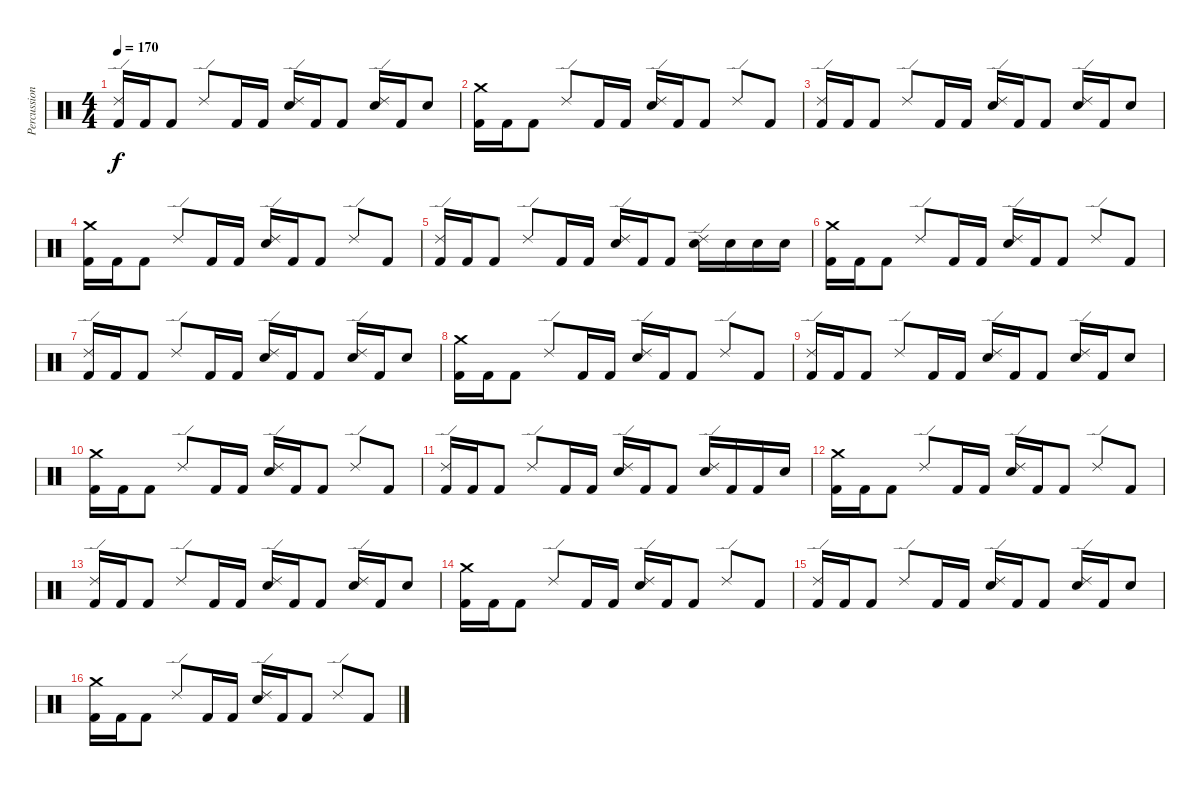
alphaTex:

\track ("Percussion" "Percussion") {instrument percussion}
\staff {score}
\articulation defaults
\ts (4 4)
\tempo 170
\clef neutral
\ks c
("Ride (edge) 2" "Kick (hit) 2").16{dy f} "Kick (hit) 2".16 "Kick (hit) 2".8 "Ride (edge) 2".8 "Kick (hit) 2".16 "Kick (hit) 2".16 ("Ride (edge) 2" "Electric Snare (hit)").16 "Kick (hit) 2".16 "Kick (hit) 2".8 ("Ride (edge) 2" "Electric Snare (hit)").16 "Kick (hit) 2".16 "Electric Snare (hit)".8 |
("Crash medium (hit)" "Kick (hit) 2").16 "Kick (hit) 2".16 "Kick (hit) 2".8 "Ride (edge) 2".8 "Kick (hit) 2".16 "Kick (hit) 2".16 ("Ride (edge) 2" "Electric Snare (hit)").16 "Kick (hit) 2".16 "Kick (hit) 2".8 "Ride (edge) 2".8 "Kick (hit) 2".8 |
("Ride (edge) 2" "Kick (hit) 2").16 "Kick (hit) 2".16 "Kick (hit) 2".8 "Ride (edge) 2".8 "Kick (hit) 2".16 "Kick (hit) 2".16 ("Ride (edge) 2" "Electric Snare (hit)").16 "Kick (hit) 2".16 "Kick (hit) 2".8 ("Ride (edge) 2" "Electric Snare (hit)").16 "Kick (hit) 2".16 "Electric Snare (hit)".8 |
("Crash medium (hit)" "Kick (hit) 2").16 "Kick (hit) 2".16 "Kick (hit) 2".8 "Ride (edge) 2".8 "Kick (hit) 2".16 "Kick (hit) 2".16 ("Ride (edge) 2" "Electric Snare (hit)").16 "Kick (hit) 2".16 "Kick (hit) 2".8 "Ride (edge) 2".8 "Kick (hit) 2".8 |
("Ride (edge) 2" "Kick (hit) 2").16 "Kick (hit) 2".16 "Kick (hit) 2".8 "Ride (edge) 2".8 "Kick (hit) 2".16 "Kick (hit) 2".16 ("Ride (edge) 2" "Electric Snare (hit)").16 "Kick (hit) 2".16 "Kick (hit) 2".8 ("Electric Snare (hit)" "Ride (edge) 2").16 "Electric Snare (hit)".16 "Electric Snare (hit)".16 "Electric Snare (hit)".16 |
("Crash medium (hit)" "Kick (hit) 2").16 "Kick (hit) 2".16 "Kick (hit) 2".8 "Ride (edge) 2".8 "Kick (hit) 2".16 "Kick (hit) 2".16 ("Ride (edge) 2" "Electric Snare (hit)").16 "Kick (hit) 2".16 "Kick (hit) 2".8 "Ride (edge) 2".8 "Kick (hit) 2".8 |
("Ride (edge) 2" "Kick (hit) 2").16 "Kick (hit) 2".16 "Kick (hit) 2".8 "Ride (edge) 2".8 "Kick (hit) 2".16 "Kick (hit) 2".16 ("Ride (edge) 2" "Electric Snare (hit)").16 "Kick (hit) 2".16 "Kick (hit) 2".8 ("Ride (edge) 2" "Electric Snare (hit)").16 "Kick (hit) 2".16 "Electric Snare (hit)".8 |
("Crash medium (hit)" "Kick (hit) 2").16 "Kick (hit) 2".16 "Kick (hit) 2".8 "Ride (edge) 2".8 "Kick (hit) 2".16 "Kick (hit) 2".16 ("Ride (edge) 2" "Electric Snare (hit)").16 "Kick (hit) 2".16 "Kick (hit) 2".8 "Ride (edge) 2".8 "Kick (hit) 2".8 |
("Ride (edge) 2" "Kick (hit) 2").16 "Kick (hit) 2".16 "Kick (hit) 2".8 "Ride (edge) 2".8 "Kick (hit) 2".16 "Kick (hit) 2".16 ("Ride (edge) 2" "Electric Snare (hit)").16 "Kick (hit) 2".16 "Kick (hit) 2".8 ("Ride (edge) 2" "Electric Snare (hit)").16 "Kick (hit) 2".16 "Electric Snare (hit)".8 |
("Crash medium (hit)" "Kick (hit) 2").16 "Kick (hit) 2".16 "Kick (hit) 2".8 "Ride (edge) 2".8 "Kick (hit) 2".16 "Kick (hit) 2".16 ("Ride (edge) 2" "Electric Snare (hit)").16 "Kick (hit) 2".16 "Kick (hit) 2".8 "Ride (edge) 2".8 "Kick (hit) 2".8 |
("Ride (edge) 2" "Kick (hit) 2").16 "Kick (hit) 2".16 "Kick (hit) 2".8 "Ride (edge) 2".8 "Kick (hit) 2".16 "Kick (hit) 2".16 ("Ride (edge) 2" "Electric Snare (hit)").16 "Kick (hit) 2".16 "Kick (hit) 2".8 ("Electric Snare (hit)" "Ride (edge) 2").16 "Kick (hit) 2".16 "Kick (hit) 2".16 "Electric Snare (hit)".16 |
("Crash medium (hit)" "Kick (hit) 2").16 "Kick (hit) 2".16 "Kick (hit) 2".8 "Ride (edge) 2".8 "Kick (hit) 2".16 "Kick (hit) 2".16 ("Ride (edge) 2" "Electric Snare (hit)").16 "Kick (hit) 2".16 "Kick (hit) 2".8 "Ride (edge) 2".8 "Kick (hit) 2".8 |
("Ride (edge) 2" "Kick (hit) 2").16 "Kick (hit) 2".16 "Kick (hit) 2".8 "Ride (edge) 2".8 "Kick (hit) 2".16 "Kick (hit) 2".16 ("Ride (edge) 2" "Electric Snare (hit)").16 "Kick (hit) 2".16 "Kick (hit) 2".8 ("Ride (edge) 2" "Electric Snare (hit)").16 "Kick (hit) 2".16 "Electric Snare (hit)".8 |
("Crash medium (hit)" "Kick (hit) 2").16 "Kick (hit) 2".16 "Kick (hit) 2".8 "Ride (edge) 2".8 "Kick (hit) 2".16 "Kick (hit) 2".16 ("Ride (edge) 2" "Electric Snare (hit)").16 "Kick (hit) 2".16 "Kick (hit) 2".8 "Ride (edge) 2".8 "Kick (hit) 2".8 |
("Ride (edge) 2" "Kick (hit) 2").16 "Kick (hit) 2".16 "Kick (hit) 2".8 "Ride (edge) 2".8 "Kick (hit) 2".16 "Kick (hit) 2".16 ("Ride (edge) 2" "Electric Snare (hit)").16 "Kick (hit) 2".16 "Kick (hit) 2".8 ("Ride (edge) 2" "Electric Snare (hit)").16 "Kick (hit) 2".16 "Electric Snare (hit)".8 |
("Crash medium (hit)" "Kick (hit) 2").16 "Kick (hit) 2".16 "Kick (hit) 2".8 "Ride (edge) 2".8 "Kick (hit) 2".16 "Kick (hit) 2".16 ("Ride (edge) 2" "Electric Snare (hit)").16 "Kick (hit) 2".16 "Kick (hit) 2".8 "Ride (edge) 2".8 "Kick (hit) 2".8
